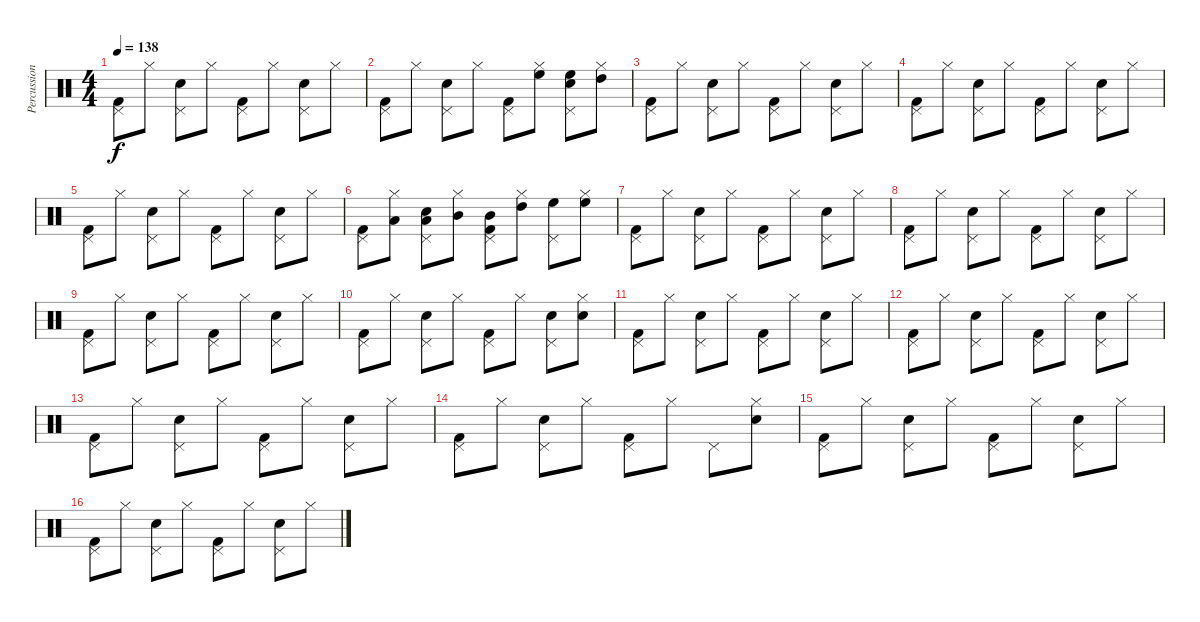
\track ("Percussions" "Percussion") {instrument percussion}
\staff {score}
\articulation defaults
\ts (4 4)
\tempo 138
\clef neutral
\ks c
("Pedal Hi-Hat (hit)" "Kick (hit) 2").8{dy f} "Hi-Hat (closed)".8 ("Pedal Hi-Hat (hit)" "Snare (hit) 2").8 "Hi-Hat (closed)".8 ("Pedal Hi-Hat (hit)" "Kick (hit) 2").8 "Hi-Hat (closed)".8 ("Pedal Hi-Hat (hit)" "Snare (hit) 2").8 "Hi-Hat (closed)".8 |
("Pedal Hi-Hat (hit)" "Kick (hit) 2").8 "Hi-Hat (closed)".8 ("Pedal Hi-Hat (hit)" "Snare (hit) 2").8 "Hi-Hat (closed)".8 ("Pedal Hi-Hat (hit)" "Kick (hit) 2").8 ("Hi-Hat (closed)" "High Floor Tom (hit)").8 ("Pedal Hi-Hat (hit)" "High Floor Tom (hit)" "Snare (hit) 2").8 ("Hi-Hat (closed)" "High Tom (hit)").8 |
("Pedal Hi-Hat (hit)" "Kick (hit) 2").8 "Hi-Hat (closed)".8 ("Pedal Hi-Hat (hit)" "Snare (hit) 2").8 "Hi-Hat (closed)".8 ("Pedal Hi-Hat (hit)" "Kick (hit) 2").8 "Hi-Hat (closed)".8 ("Pedal Hi-Hat (hit)" "Snare (hit) 2").8 "Hi-Hat (closed)".8 |
("Pedal Hi-Hat (hit)" "Kick (hit) 2").8 "Hi-Hat (closed)".8 ("Pedal Hi-Hat (hit)" "Snare (hit) 2").8 "Hi-Hat (closed)".8 ("Pedal Hi-Hat (hit)" "Kick (hit) 2").8 "Hi-Hat (closed)".8 ("Pedal Hi-Hat (hit)" "Snare (hit) 2").8 "Hi-Hat (closed)".8 |
("Pedal Hi-Hat (hit)" "Kick (hit) 2").8 "Hi-Hat (closed)".8 ("Pedal Hi-Hat (hit)" "Snare (hit) 2").8 "Hi-Hat (closed)".8 ("Pedal Hi-Hat (hit)" "Kick (hit) 2").8 "Hi-Hat (closed)".8 ("Pedal Hi-Hat (hit)" "Snare (hit) 2").8 "Hi-Hat (closed)".8 |
("Pedal Hi-Hat (hit)" "Kick (hit) 2").8 ("Hi-Hat (closed)" "Low Tom (hit)").8 ("Pedal Hi-Hat (hit)" "Low Tom (hit)" "Snare (hit) 2").8 ("Hi-Hat (closed)" "Mid Tom (hit)").8 ("Pedal Hi-Hat (hit)" "Mid Tom (hit)" "Kick (hit) 2").8 ("Hi-Hat (closed)" "High Tom (hit)").8 ("Pedal Hi-Hat (hit)" "High Floor Tom (hit)").8 ("Hi-Hat (closed)" "High Floor Tom (hit)").8 |
("Pedal Hi-Hat (hit)" "Kick (hit) 2").8 "Hi-Hat (closed)".8 ("Pedal Hi-Hat (hit)" "Snare (hit) 2").8 "Hi-Hat (closed)".8 ("Pedal Hi-Hat (hit)" "Kick (hit) 2").8 "Hi-Hat (closed)".8 ("Pedal Hi-Hat (hit)" "Snare (hit) 2").8 "Hi-Hat (closed)".8 |
("Pedal Hi-Hat (hit)" "Kick (hit) 2").8 "Hi-Hat (closed)".8 ("Pedal Hi-Hat (hit)" "Snare (hit) 2").8 "Hi-Hat (closed)".8 ("Pedal Hi-Hat (hit)" "Kick (hit) 2").8 "Hi-Hat (closed)".8 ("Pedal Hi-Hat (hit)" "Snare (hit) 2").8 "Hi-Hat (closed)".8 |
("Pedal Hi-Hat (hit)" "Kick (hit) 2").8 "Hi-Hat (closed)".8 ("Pedal Hi-Hat (hit)" "Snare (hit) 2").8 "Hi-Hat (closed)".8 ("Pedal Hi-Hat (hit)" "Kick (hit) 2").8 "Hi-Hat (closed)".8 ("Pedal Hi-Hat (hit)" "Snare (hit) 2").8 "Hi-Hat (closed)".8 |
("Pedal Hi-Hat (hit)" "Kick (hit) 2").8 "Hi-Hat (closed)".8 ("Pedal Hi-Hat (hit)" "Snare (hit) 2").8 "Hi-Hat (closed)".8 ("Pedal Hi-Hat (hit)" "Kick (hit) 2").8 "Hi-Hat (closed)".8 ("Pedal Hi-Hat (hit)" "Snare (hit) 2").8 ("Hi-Hat (closed)" "Snare (hit) 2").8 |
("Pedal Hi-Hat (hit)" "Kick (hit) 2").8 "Hi-Hat (closed)".8 ("Pedal Hi-Hat (hit)" "Snare (hit) 2").8 "Hi-Hat (closed)".8 ("Pedal Hi-Hat (hit)" "Kick (hit) 2").8 "Hi-Hat (closed)".8 ("Pedal Hi-Hat (hit)" "Snare (hit) 2").8 "Hi-Hat (closed)".8 |
("Pedal Hi-Hat (hit)" "Kick (hit) 2").8 "Hi-Hat (closed)".8 ("Pedal Hi-Hat (hit)" "Snare (hit) 2").8 "Hi-Hat (closed)".8 ("Pedal Hi-Hat (hit)" "Kick (hit) 2").8 "Hi-Hat (closed)".8 ("Pedal Hi-Hat (hit)" "Snare (hit) 2").8 "Hi-Hat (closed)".8 |
("Pedal Hi-Hat (hit)" "Kick (hit) 2").8 "Hi-Hat (closed)".8 ("Pedal Hi-Hat (hit)" "Snare (hit) 2").8 "Hi-Hat (closed)".8 ("Pedal Hi-Hat (hit)" "Kick (hit) 2").8 "Hi-Hat (closed)".8 ("Pedal Hi-Hat (hit)" "Snare (hit) 2").8 "Hi-Hat (closed)".8 |
("Pedal Hi-Hat (hit)" "Kick (hit) 2").8 "Hi-Hat (closed)".8 ("Pedal Hi-Hat (hit)" "Snare (hit) 2").8 "Hi-Hat (closed)".8 ("Pedal Hi-Hat (hit)" "Kick (hit) 2").8 "Hi-Hat (closed)".8 "Pedal Hi-Hat (hit)".8 ("Hi-Hat (closed)" "Snare (hit) 2").8 |
("Pedal Hi-Hat (hit)" "Kick (hit) 2").8 "Hi-Hat (closed)".8 ("Pedal Hi-Hat (hit)" "Snare (hit) 2").8 "Hi-Hat (closed)".8 ("Pedal Hi-Hat (hit)" "Kick (hit) 2").8 "Hi-Hat (closed)".8 ("Pedal Hi-Hat (hit)" "Snare (hit) 2").8 "Hi-Hat (closed)".8 |
("Pedal Hi-Hat (hit)" "Kick (hit) 2").8 "Hi-Hat (closed)".8 ("Pedal Hi-Hat (hit)" "Snare (hit) 2").8 "Hi-Hat (closed)".8 ("Pedal Hi-Hat (hit)" "Kick (hit) 2").8 "Hi-Hat (closed)".8 ("Pedal Hi-Hat (hit)" "Snare (hit) 2").8 "Hi-Hat (closed)".8
